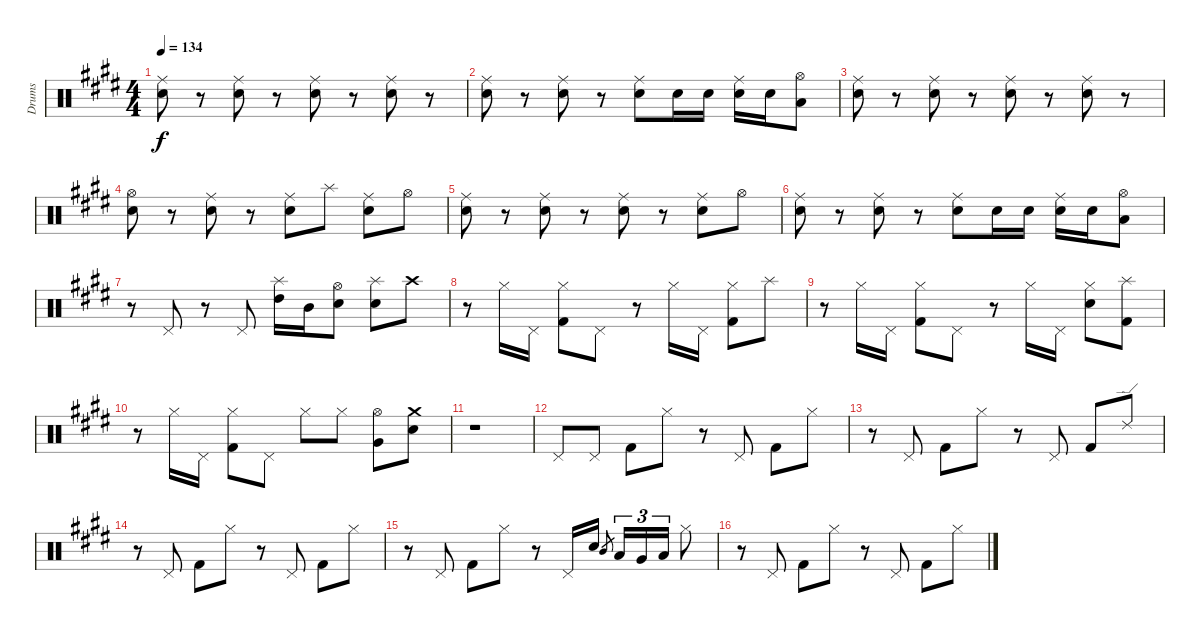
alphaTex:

\track ("Drums" "Drums") {instrument percussion}
\staff {score}
\articulation defaults
\ts (4 4)
\tempo 134
\clef neutral
\ks e
("Ride (middle)" "Electric Snare (hit)").8{dy f} r.8 ("Ride (middle)" "Electric Snare (hit)").8 r.8 ("Ride (middle)" "Electric Snare (hit)").8 r.8 ("Ride (middle)" "Electric Snare (hit)").8 r.8 |
("Ride (middle)" "Electric Snare (hit)").8 r.8 ("Ride (middle)" "Electric Snare (hit)").8 r.8 ("Ride (middle)" "Electric Snare (hit)").8 "Electric Snare (hit)".16{volume 8} "Electric Snare (hit)".16 ("Ride (middle)" "Electric Snare (hit)").16 "Electric Snare (hit)".16 ("Hi-Hat (open)" "Low Tom (hit)").8{volume 10} |
("Ride (middle)" "Electric Snare (hit)").8 r.8 ("Ride (middle)" "Electric Snare (hit)").8 r.8 ("Ride (middle)" "Electric Snare (hit)").8 r.8 ("Ride (middle)" "Electric Snare (hit)").8 r.8 |
("Hi-Hat (open)" "Electric Snare (hit)").8 r.8 ("Ride (middle)" "Electric Snare (hit)").8 r.8 ("Ride (middle)" "Electric Snare (hit)").8 "Splash (hit)".8 ("Ride (middle)" "Electric Snare (hit)").8 "Hi-Hat (open)".8 |
("Ride (middle)" "Electric Snare (hit)").8 r.8 ("Ride (middle)" "Electric Snare (hit)").8 r.8 ("Ride (middle)" "Electric Snare (hit)").8 r.8 ("Ride (middle)" "Electric Snare (hit)").8 "Hi-Hat (open)".8 |
("Ride (middle)" "Electric Snare (hit)").8 r.8 ("Ride (middle)" "Electric Snare (hit)").8 r.8 ("Ride (middle)" "Electric Snare (hit)").8 "Electric Snare (hit)".16{volume 8} "Electric Snare (hit)".16 ("Ride (middle)" "Electric Snare (hit)").16 "Electric Snare (hit)".16 ("Hi-Hat (open)" "Low Tom (hit)").8{volume 10} |
r.8 "Pedal Hi-Hat (hit)".8 r.8 "Pedal Hi-Hat (hit)".8 ("High Tom (hit)" "Splash (hit)").16 "Mid Tom (hit)".16 ("Electric Snare (hit)" "Hi-Hat (open)").8 ("Electric Snare (hit)" "Splash (hit)").8 "Crash high (hit)".8 |
r.8 "Hi-Hat (closed)".16 "Pedal Hi-Hat (hit)".16 ("Hi-Hat (closed)" "Kick (hit) 2").8 "Pedal Hi-Hat (hit)".8 r.8 "Hi-Hat (closed)".16 "Pedal Hi-Hat (hit)".16 ("Hi-Hat (closed)" "Kick (hit) 2").8 "Splash (hit)".8 |
r.8 "Hi-Hat (closed)".16 "Pedal Hi-Hat (hit)".16 ("Hi-Hat (closed)" "Kick (hit) 2").8 "Pedal Hi-Hat (hit)".8 r.8 "Hi-Hat (closed)".16 "Pedal Hi-Hat (hit)".16 ("Hi-Hat (closed)" "Electric Snare (hit)").8 ("Splash (hit)" "Kick (hit) 2").8 |
r.8 "Hi-Hat (closed)".16 "Pedal Hi-Hat (hit)".16 ("Hi-Hat (closed)" "Kick (hit) 2").8 "Pedal Hi-Hat (hit)".8 "Hi-Hat (closed)".8 "Hi-Hat (closed)".8 ("Very Low Tom (hit)" "Hi-Hat (open)").8 ("Electric Snare (hit)" "Crash medium (hit)").8 |
r.1 |
"Pedal Hi-Hat (hit)".8 "Pedal Hi-Hat (hit)".8 "Kick (hit) 2".8 "Hi-Hat (closed)".8 r.8 "Pedal Hi-Hat (hit)".8 "Kick (hit) 2".8 "Hi-Hat (closed)".8 |
r.8 "Pedal Hi-Hat (hit)".8 "Kick (hit) 2".8 "Hi-Hat (closed)".8 r.8 "Pedal Hi-Hat (hit)".8 "Kick (hit) 2".8 "Ride (edge) 2".8 |
r.8 "Pedal Hi-Hat (hit)".8 "Kick (hit) 2".8 "Hi-Hat (closed)".8 r.8 "Pedal Hi-Hat (hit)".8 "Kick (hit) 2".8 "Hi-Hat (closed)".8 |
r.8 "Pedal Hi-Hat (hit)".8 "Kick (hit) 2".8 "Hi-Hat (closed)".8 r.8 "Pedal Hi-Hat (hit)".16 "Electric Snare (hit)".16 "Mid Tom (hit)".8{gr} "Low Tom (hit)".16{tu (3 2)} "Very Low Tom (hit)".16{tu (3 2)} "Low Floor Tom (hit)".16{tu (3 2)} "Hi-Hat (closed)".8 |
r.8 "Pedal Hi-Hat (hit)".8 "Kick (hit) 2".8 "Hi-Hat (closed)".8 r.8 "Pedal Hi-Hat (hit)".8 "Kick (hit) 2".8 "Hi-Hat (closed)".8
